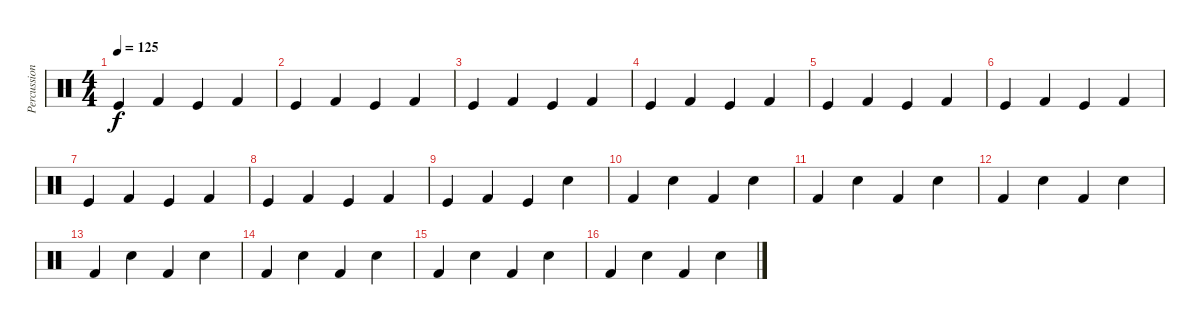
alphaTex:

\track ("Percussion" "Percussion") {instrument percussion}
\staff {score}
\articulation defaults
\ts (4 4)
\tempo 125
\clef neutral
\ks c "Kick (hit)".4{dy f} "Kick (hit) 2".4 "Kick (hit)".4 "Kick (hit) 2".4
|
"Kick (hit)".4 "Kick (hit) 2".4 "Kick (hit)".4 "Kick (hit) 2".4 |
"Kick (hit)".4 "Kick (hit) 2".4 "Kick (hit)".4 "Kick (hit) 2".4 |
"Kick (hit)".4 "Kick (hit) 2".4 "Kick (hit)".4 "Kick (hit) 2".4 |
"Kick (hit)".4 "Kick (hit) 2".4 "Kick (hit)".4 "Kick (hit) 2".4 |
"Kick (hit)".4 "Kick (hit) 2".4 "Kick (hit)".4 "Kick (hit) 2".4 |
"Kick (hit)".4 "Kick (hit) 2".4 "Kick (hit)".4 "Kick (hit) 2".4 |
"Kick (hit)".4 "Kick (hit) 2".4 "Kick (hit)".4 "Kick (hit) 2".4 |
"Kick (hit)".4 "Kick (hit) 2".4 "Kick (hit)".4 "Snare (hit) 2".4 |
"Kick (hit) 2".4 "Snare (hit) 2".4 "Kick (hit) 2".4 "Snare (hit) 2".4 |
"Kick (hit) 2".4 "Snare (hit) 2".4 "Kick (hit) 2".4 "Snare (hit) 2".4 |
"Kick (hit) 2".4 "Snare (hit) 2".4 "Kick (hit) 2".4 "Snare (hit) 2".4 |
"Kick (hit) 2".4 "Snare (hit) 2".4 "Kick (hit) 2".4 "Snare (hit) 2".4 |
"Kick (hit) 2".4 "Snare (hit) 2".4 "Kick (hit) 2".4 "Snare (hit) 2".4 |
"Kick (hit) 2".4 "Snare (hit) 2".4 "Kick (hit) 2".4 "Snare (hit) 2".4 |
"Kick (hit) 2".4 "Snare (hit) 2".4 "Kick (hit) 2".4 "Snare (hit) 2".4
